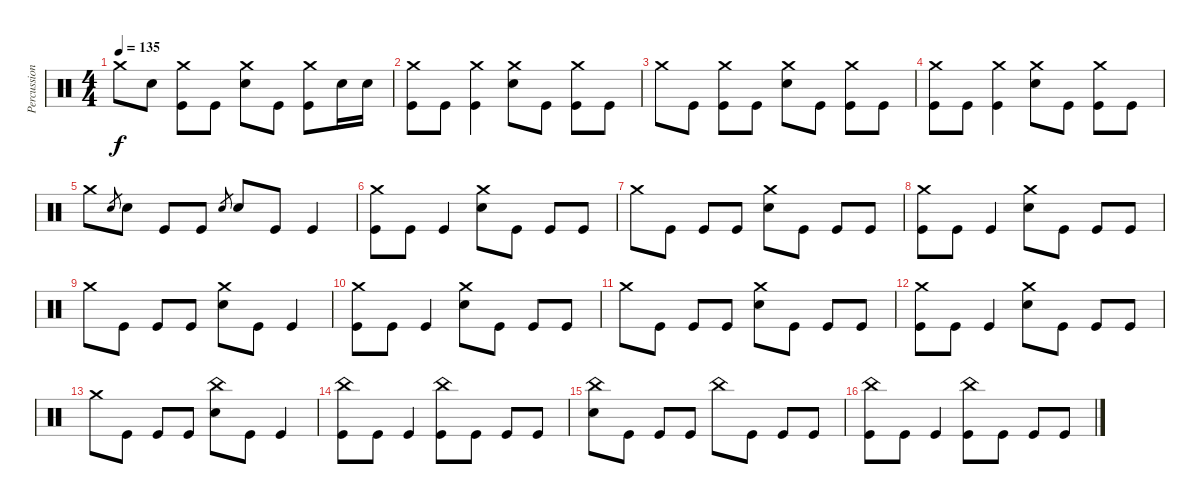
\track ("Percussion" "Percussion") {instrument percussion}
\staff {score}
\articulation defaults
\ts (4 4)
\tempo 135
\clef neutral
\ks c "Crash medium (hit)".8{dy f} "Snare (hit) 2".8
("Crash medium (hit)" "Kick (hit)").8 "Kick (hit)".8 ("Crash medium (hit)" "Snare (hit) 2").8 "Kick (hit)".8 ("Crash medium (hit)" "Kick (hit)").8 "Snare (hit) 2".16 "Snare (hit) 2".16 |
("Crash medium (hit)" "Kick (hit)").8 "Kick (hit)".8 ("Crash medium (hit)" "Kick (hit)").4 ("Crash medium (hit)" "Snare (hit) 2").8 "Kick (hit)".8 ("Crash medium (hit)" "Kick (hit)").8 "Kick (hit)".8 |
"Crash medium (hit)".8 "Kick (hit)".8 ("Crash medium (hit)" "Kick (hit)").8 "Kick (hit)".8 ("Crash medium (hit)" "Snare (hit) 2").8 "Kick (hit)".8 ("Crash medium (hit)" "Kick (hit)").8 "Kick (hit)".8 |
("Crash medium (hit)" "Kick (hit)").8 "Kick (hit)".8 ("Crash medium (hit)" "Kick (hit)").4 ("Crash medium (hit)" "Snare (hit) 2").8 "Kick (hit)".8 ("Crash medium (hit)" "Kick (hit)").8 "Kick (hit)".8 |
"Crash medium (hit)".8 "Snare (hit) 2".8{gr} "Snare (hit) 2".8 "Kick (hit)".8 "Kick (hit)".8 "Snare (hit) 2".8{gr} "Snare (hit) 2".8 "Kick (hit)".8 "Kick (hit)".4 |
("Crash medium (hit)" "Kick (hit)").8 "Kick (hit)".8 "Kick (hit)".4 ("Crash medium (hit)" "Snare (hit) 2").8 "Kick (hit)".8 "Kick (hit)".8 "Kick (hit)".8 |
"Crash medium (hit)".8 "Kick (hit)".8 "Kick (hit)".8 "Kick (hit)".8 ("Crash medium (hit)" "Snare (hit) 2").8 "Kick (hit)".8 "Kick (hit)".8 "Kick (hit)".8 |
("Crash medium (hit)" "Kick (hit)").8 "Kick (hit)".8 "Kick (hit)".4 ("Crash medium (hit)" "Snare (hit) 2").8 "Kick (hit)".8 "Kick (hit)".8 "Kick (hit)".8 |
"Crash medium (hit)".8 "Kick (hit)".8 "Kick (hit)".8 "Kick (hit)".8 ("Crash medium (hit)" "Snare (hit) 2").8 "Kick (hit)".8 "Kick (hit)".4 |
("Crash medium (hit)" "Kick (hit)").8 "Kick (hit)".8 "Kick (hit)".4 ("Crash medium (hit)" "Snare (hit) 2").8 "Kick (hit)".8 "Kick (hit)".8 "Kick (hit)".8 |
"Crash medium (hit)".8 "Kick (hit)".8 "Kick (hit)".8 "Kick (hit)".8 ("Crash medium (hit)" "Snare (hit) 2").8 "Kick (hit)".8 "Kick (hit)".8 "Kick (hit)".8 |
("Crash medium (hit)" "Kick (hit)").8 "Kick (hit)".8 "Kick (hit)".4 ("Crash medium (hit)" "Snare (hit) 2").8 "Kick (hit)".8 "Kick (hit)".8 "Kick (hit)".8 |
"Crash medium (hit)".8 "Kick (hit)".8 "Kick (hit)".8 "Kick (hit)".8 ("China (hit)" "Snare (hit) 2").8 "Kick (hit)".8 "Kick (hit)".4 |
("China (hit)" "Kick (hit)").8 "Kick (hit)".8 "Kick (hit)".4 ("China (hit)" "Kick (hit)").8 "Kick (hit)".8 "Kick (hit)".8 "Kick (hit)".8 |
("China (hit)" "Snare (hit) 2").8 "Kick (hit)".8 "Kick (hit)".8 "Kick (hit)".8 "China (hit)".8 "Kick (hit)".8 "Kick (hit)".8 "Kick (hit)".8 |
("China (hit)" "Kick (hit)").8 "Kick (hit)".8 "Kick (hit)".4 ("China (hit)" "Kick (hit)").8 "Kick (hit)".8 "Kick (hit)".8 "Kick (hit)".8
